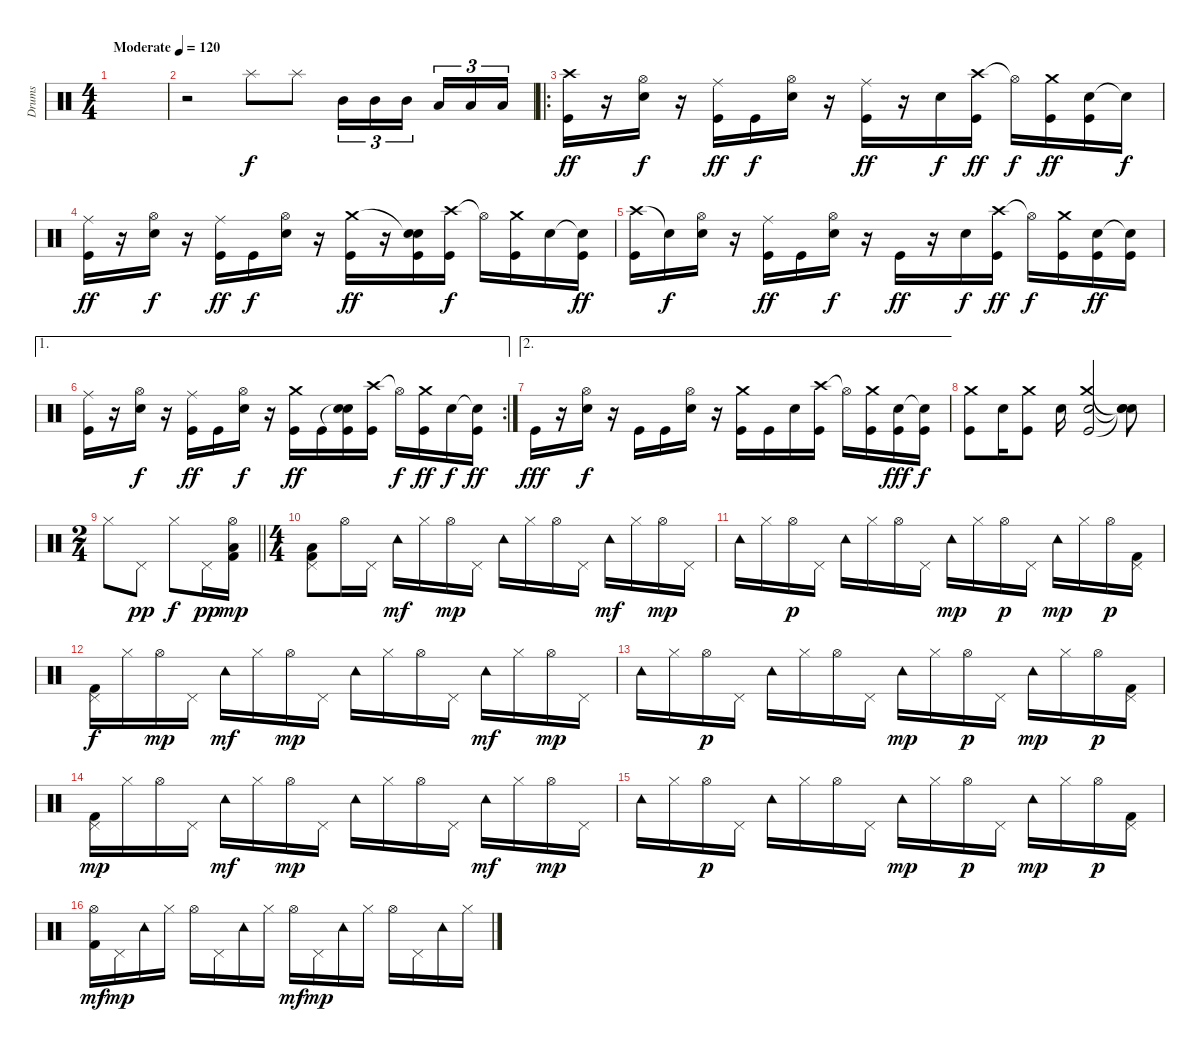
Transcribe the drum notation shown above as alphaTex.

\track ("Drums" "Drums") {instrument percussion}
\staff {score}
\articulation defaults
\ts (4 4)
\tempo (120 "Moderate")
\clef neutral
\ks c
|
r.2 "Splash (hit)".8 "Splash (hit)".8 "Mid Tom (hit)".16{tu (3 2) dy f} "Mid Tom (hit)".16{tu (3 2)} "Mid Tom (hit)".16{tu (3 2) beam splitsecondary} "Low Tom (hit)".16{tu (3 2)} "Low Tom (hit)".16{tu (3 2)} "Low Tom (hit)".16{tu (3 2)} |
\ro
("Crash high (hit)" "Kick (hit)").16{dy ff} r.16 ("Hi-Hat (open)" "Electric Snare (hit)").16{dy f} r.16 ("Ride (middle)" "Kick (hit)").16{dy ff} "Kick (hit)".16{dy f} ("Hi-Hat (open)" "Electric Snare (hit)").16 r.16 ("Ride (middle)" "Kick (hit)").16{dy ff} r.16 "Electric Snare (hit)".16{dy f} ("Crash high (hit)" "Kick (hit)").16{dy ff} "Hi-Hat (open)"{t}.16{dy f} ("Crash medium (hit)" "Kick (hit)").16{dy ff} ("Electric Snare (hit)" "Kick (hit)").16 "Snare (hit)"{t}.16{dy f} |
("Ride (middle)" "Kick (hit)").16{dy ff} r.16 ("Hi-Hat (open)" "Electric Snare (hit)").16{dy f} r.16 ("Ride (middle)" "Kick (hit)").16{dy ff} "Kick (hit)".16{dy f} ("Hi-Hat (open)" "Electric Snare (hit)").16 r.16 ("Crash medium (hit)" "Kick (hit)").16{dy ff} r.16 ("Snare (hit)"{t} "Electric Snare (hit)" "Kick (hit)").16 ("Crash high (hit)" "Kick (hit)").16{dy f} "Hi-Hat (open)"{t}.16 ("Crash medium (hit)" "Kick (hit)").16 "Electric Snare (hit)".16 ("Snare (hit)"{t} "Kick (hit)").16{dy ff} |
("Crash high (hit)" "Kick (hit)").16 "Snare (hit)"{t}.16{dy f} ("Hi-Hat (open)" "Electric Snare (hit)").16 r.16 ("Ride (middle)" "Kick (hit)").16{dy ff} "Kick (hit)".16 ("Hi-Hat (open)" "Electric Snare (hit)").16{dy f} r.16 "Kick (hit)".16{dy ff} r.16 "Electric Snare (hit)".16{dy f} ("Crash high (hit)" "Kick (hit)").16{dy ff} "Hi-Hat (open)"{t}.16{dy f} ("Crash medium (hit)" "Kick (hit)").16 ("Electric Snare (hit)" "Kick (hit)").16{dy ff} ("Snare (hit)"{t} "Kick (hit)").16 |
\ae 1
\rc 2
("Ride (middle)" "Kick (hit)").16 r.16 ("Hi-Hat (open)" "Electric Snare (hit)").16{dy f} r.16 ("Ride (middle)" "Kick (hit)").16{dy ff} "Kick (hit)".16 ("Hi-Hat (open)" "Electric Snare (hit)").16{dy f} r.16 ("Crash medium (hit)" "Kick (hit)").16{dy ff} "Kick (hit)".16 ("Snare (hit)"{t} "Electric Snare (hit)" "Kick (hit)").16 ("Crash high (hit)" "Kick (hit)").16 "Hi-Hat (open)"{t}.16{dy f} ("Crash medium (hit)" "Kick (hit)").16{dy ff} "Electric Snare (hit)".16{dy f} ("Snare (hit)"{t} "Kick (hit)").16{dy ff} |
\ae 2 "Kick (hit)".16{dy fff}
r.16 ("Hi-Hat (open)" "Electric Snare (hit)").16{dy f} r.16 "Kick (hit)".16 "Kick (hit)".16 ("Hi-Hat (open)" "Electric Snare (hit)").16 r.16 ("Crash medium (hit)" "Kick (hit)").16 "Kick (hit)".16 "Electric Snare (hit)".16 ("Crash high (hit)" "Kick (hit)").16 "Hi-Hat (open)"{t}.16 ("Crash medium (hit)" "Kick (hit)").16 ("Electric Snare (hit)" "Kick (hit)").16{dy fff} ("Snare (hit)"{t} "Kick (hit)").16{dy f} |
("Crash medium (hit)" "Kick (hit)").8 "Snare (hit) 2".16 ("Crash medium (hit)" "Kick (hit)").8 "Snare (hit) 2".16 ("Crash medium (hit)" "Snare (hit) 2" "Kick (hit)").2 ("Snare (hit)"{t} "Snare (hit)"{t} "Snare (hit)"{t}).8 |
\ts (2 4)
\barLineRight lightlight "Hi-Hat (closed)".8 "Pedal Hi-Hat (hit)".8{dy pp} "Hi-Hat (closed)".8{dy f} "Pedal Hi-Hat (hit)".16{dy pp}
("Hi-Hat (open)" "Low Floor Tom (hit)" "Kick (hit) 2").16{dy mp} |
\ts (4 4)
\section ("" "")
("Pedal Hi-Hat (hit)" "Low Floor Tom (hit)" "Kick (hit) 2").8 "Hi-Hat (open)".16 "Pedal Hi-Hat (hit)".16 "Tambourine (hit)".16{dy mf} "Hi-Hat (closed)".16 "Hi-Hat (open)".16{dy mp} "Pedal Hi-Hat (hit)".16 "Tambourine (hit)".16 "Hi-Hat (closed)".16 "Hi-Hat (open)".16 "Pedal Hi-Hat (hit)".16 "Tambourine (hit)".16{dy mf} "Hi-Hat (closed)".16 "Hi-Hat (open)".16{dy mp} "Pedal Hi-Hat (hit)".16 |
"Tambourine (hit)".16 "Hi-Hat (closed)".16 "Hi-Hat (open)".16{dy p} "Pedal Hi-Hat (hit)".16 "Tambourine (hit)".16 "Hi-Hat (closed)".16 "Hi-Hat (open)".16 "Pedal Hi-Hat (hit)".16 "Tambourine (hit)".16{dy mp} "Hi-Hat (closed)".16 "Hi-Hat (open)".16{dy p} "Pedal Hi-Hat (hit)".16 "Tambourine (hit)".16{dy mp} "Hi-Hat (closed)".16 "Hi-Hat (open)".16{dy p} ("Pedal Hi-Hat (hit)" "Kick (hit) 2").16 |
("Pedal Hi-Hat (hit)" "Kick (hit) 2").16{dy f} "Hi-Hat (closed)".16 "Hi-Hat (open)".16{dy mp} "Pedal Hi-Hat (hit)".16 "Tambourine (hit)".16{dy mf} "Hi-Hat (closed)".16 "Hi-Hat (open)".16{dy mp} "Pedal Hi-Hat (hit)".16 "Tambourine (hit)".16 "Hi-Hat (closed)".16 "Hi-Hat (open)".16 "Pedal Hi-Hat (hit)".16 "Tambourine (hit)".16{dy mf} "Hi-Hat (closed)".16 "Hi-Hat (open)".16{dy mp} "Pedal Hi-Hat (hit)".16 |
"Tambourine (hit)".16 "Hi-Hat (closed)".16 "Hi-Hat (open)".16{dy p} "Pedal Hi-Hat (hit)".16 "Tambourine (hit)".16 "Hi-Hat (closed)".16 "Hi-Hat (open)".16 "Pedal Hi-Hat (hit)".16 "Tambourine (hit)".16{dy mp} "Hi-Hat (closed)".16 "Hi-Hat (open)".16{dy p} "Pedal Hi-Hat (hit)".16 "Tambourine (hit)".16{dy mp} "Hi-Hat (closed)".16 "Hi-Hat (open)".16{dy p} ("Pedal Hi-Hat (hit)" "Kick (hit) 2").16 |
("Pedal Hi-Hat (hit)" "Kick (hit) 2").16{dy mp} "Hi-Hat (closed)".16 "Hi-Hat (open)".16 "Pedal Hi-Hat (hit)".16 "Tambourine (hit)".16{dy mf} "Hi-Hat (closed)".16 "Hi-Hat (open)".16{dy mp} "Pedal Hi-Hat (hit)".16 "Tambourine (hit)".16 "Hi-Hat (closed)".16 "Hi-Hat (open)".16 "Pedal Hi-Hat (hit)".16 "Tambourine (hit)".16{dy mf} "Hi-Hat (closed)".16 "Hi-Hat (open)".16{dy mp} "Pedal Hi-Hat (hit)".16 |
"Tambourine (hit)".16 "Hi-Hat (closed)".16 "Hi-Hat (open)".16{dy p} "Pedal Hi-Hat (hit)".16 "Tambourine (hit)".16 "Hi-Hat (closed)".16 "Hi-Hat (open)".16 "Pedal Hi-Hat (hit)".16 "Tambourine (hit)".16{dy mp} "Hi-Hat (closed)".16 "Hi-Hat (open)".16{dy p} "Pedal Hi-Hat (hit)".16 "Tambourine (hit)".16{dy mp} "Hi-Hat (closed)".16 "Hi-Hat (open)".16{dy p} ("Pedal Hi-Hat (hit)" "Kick (hit) 2").16 |
("Hi-Hat (open)" "Kick (hit) 2").16{dy mf} "Pedal Hi-Hat (hit)".16{dy mp} "Tambourine (hit)".16 "Hi-Hat (closed)".16 "Hi-Hat (open)".16 "Pedal Hi-Hat (hit)".16 "Tambourine (hit)".16 "Hi-Hat (closed)".16 "Hi-Hat (open)".16{dy mf} "Pedal Hi-Hat (hit)".16{dy mp} "Tambourine (hit)".16 "Hi-Hat (closed)".16 "Hi-Hat (open)".16 "Pedal Hi-Hat (hit)".16 "Tambourine (hit)".16 "Hi-Hat (closed)".16
